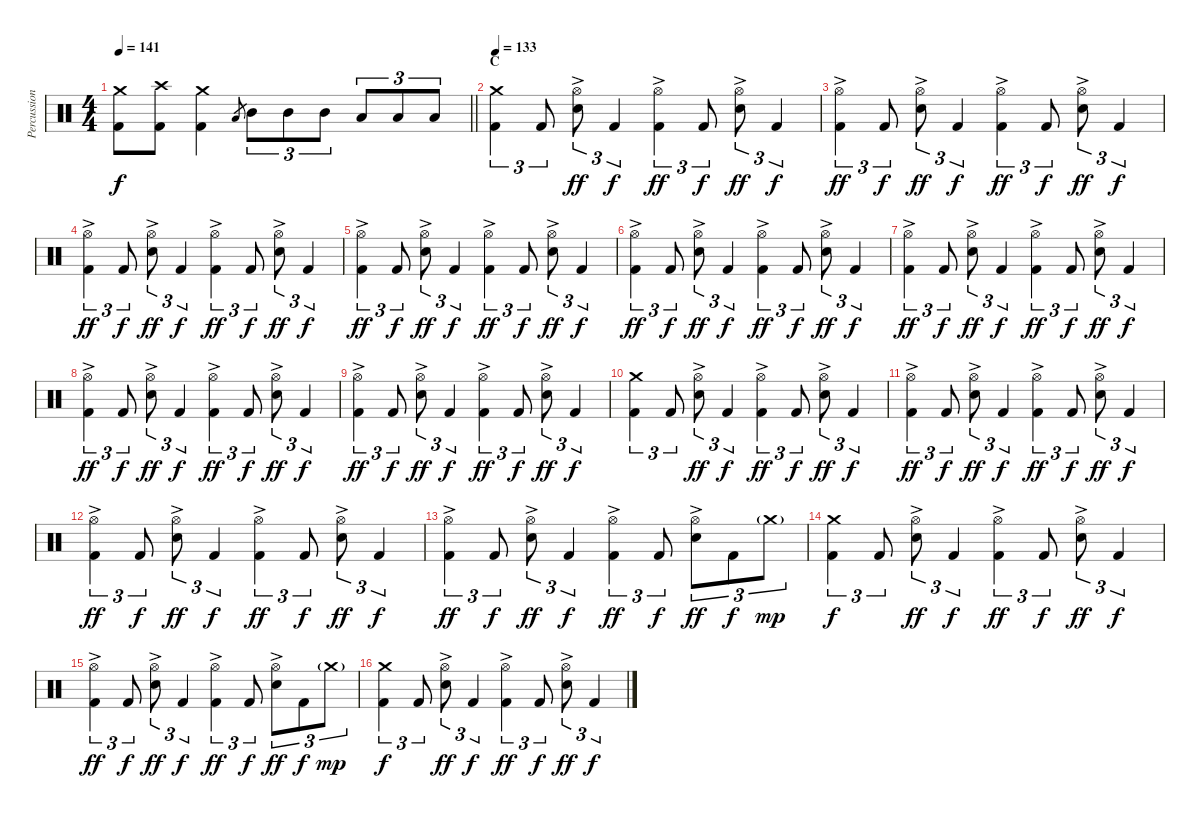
\track ("Percussion" "Percussion") {instrument percussion}
\staff {score}
\articulation defaults
\ts (4 4)
\tempo 141
\clef neutral
\barLineRight lightlight
\ks c
("Crash medium (hit)" "Kick (hit) 2").8{dy f} ("Crash high (hit)" "Kick (hit) 2").8 ("Crash medium (hit)" "Kick (hit) 2").4 "Low Tom (hit)".8{gr} "Mid Tom (hit)".8{tu (3 2)} "Mid Tom (hit)".8{tu (3 2)} "Mid Tom (hit)".8{tu (3 2)} "Low Tom (hit)".8{tu (3 2)} "Low Tom (hit)".8{tu (3 2)} "Low Tom (hit)".8{tu (3 2)} |
\section ("" "C")
\tempo 133
("Crash medium (hit)" "Kick (hit) 2").4{tu (3 2)} "Kick (hit) 2".8{tu (3 2)} ("Hi-Hat (open)"{ac} "Snare (hit) 2").8{tu (3 2) dy ff} "Kick (hit) 2".4{tu (3 2) dy f} ("Hi-Hat (open)"{ac} "Kick (hit) 2").4{tu (3 2) dy ff} "Kick (hit) 2".8{tu (3 2) dy f} ("Hi-Hat (open)"{ac} "Snare (hit) 2").8{tu (3 2) dy ff} "Kick (hit) 2".4{tu (3 2) dy f} |
("Hi-Hat (open)"{ac} "Kick (hit) 2").4{tu (3 2) dy ff} "Kick (hit) 2".8{tu (3 2) dy f} ("Hi-Hat (open)"{ac} "Snare (hit) 2").8{tu (3 2) dy ff} "Kick (hit) 2".4{tu (3 2) dy f} ("Hi-Hat (open)"{ac} "Kick (hit) 2").4{tu (3 2) dy ff} "Kick (hit) 2".8{tu (3 2) dy f} ("Hi-Hat (open)"{ac} "Snare (hit) 2").8{tu (3 2) dy ff} "Kick (hit) 2".4{tu (3 2) dy f} |
("Hi-Hat (open)"{ac} "Kick (hit) 2").4{tu (3 2) dy ff} "Kick (hit) 2".8{tu (3 2) dy f} ("Hi-Hat (open)"{ac} "Snare (hit) 2").8{tu (3 2) dy ff} "Kick (hit) 2".4{tu (3 2) dy f} ("Hi-Hat (open)"{ac} "Kick (hit) 2").4{tu (3 2) dy ff} "Kick (hit) 2".8{tu (3 2) dy f} ("Hi-Hat (open)"{ac} "Snare (hit) 2").8{tu (3 2) dy ff} "Kick (hit) 2".4{tu (3 2) dy f} |
("Hi-Hat (open)"{ac} "Kick (hit) 2").4{tu (3 2) dy ff} "Kick (hit) 2".8{tu (3 2) dy f} ("Hi-Hat (open)"{ac} "Snare (hit) 2").8{tu (3 2) dy ff} "Kick (hit) 2".4{tu (3 2) dy f} ("Hi-Hat (open)"{ac} "Kick (hit) 2").4{tu (3 2) dy ff} "Kick (hit) 2".8{tu (3 2) dy f} ("Hi-Hat (open)"{ac} "Snare (hit) 2").8{tu (3 2) dy ff} "Kick (hit) 2".4{tu (3 2) dy f} |
("Hi-Hat (open)"{ac} "Kick (hit) 2").4{tu (3 2) dy ff} "Kick (hit) 2".8{tu (3 2) dy f} ("Hi-Hat (open)"{ac} "Snare (hit) 2").8{tu (3 2) dy ff} "Kick (hit) 2".4{tu (3 2) dy f} ("Hi-Hat (open)"{ac} "Kick (hit) 2").4{tu (3 2) dy ff} "Kick (hit) 2".8{tu (3 2) dy f} ("Hi-Hat (open)"{ac} "Snare (hit) 2").8{tu (3 2) dy ff} "Kick (hit) 2".4{tu (3 2) dy f} |
("Hi-Hat (open)"{ac} "Kick (hit) 2").4{tu (3 2) dy ff} "Kick (hit) 2".8{tu (3 2) dy f} ("Hi-Hat (open)"{ac} "Snare (hit) 2").8{tu (3 2) dy ff} "Kick (hit) 2".4{tu (3 2) dy f} ("Hi-Hat (open)"{ac} "Kick (hit) 2").4{tu (3 2) dy ff} "Kick (hit) 2".8{tu (3 2) dy f} ("Hi-Hat (open)"{ac} "Snare (hit) 2").8{tu (3 2) dy ff} "Kick (hit) 2".4{tu (3 2) dy f} |
("Hi-Hat (open)"{ac} "Kick (hit) 2").4{tu (3 2) dy ff} "Kick (hit) 2".8{tu (3 2) dy f} ("Hi-Hat (open)"{ac} "Snare (hit) 2").8{tu (3 2) dy ff} "Kick (hit) 2".4{tu (3 2) dy f} ("Hi-Hat (open)"{ac} "Kick (hit) 2").4{tu (3 2) dy ff} "Kick (hit) 2".8{tu (3 2) dy f} ("Hi-Hat (open)"{ac} "Snare (hit) 2").8{tu (3 2) dy ff} "Kick (hit) 2".4{tu (3 2) dy f} |
("Hi-Hat (open)"{ac} "Kick (hit) 2").4{tu (3 2) dy ff} "Kick (hit) 2".8{tu (3 2) dy f} ("Hi-Hat (open)"{ac} "Snare (hit) 2").8{tu (3 2) dy ff} "Kick (hit) 2".4{tu (3 2) dy f} ("Hi-Hat (open)"{ac} "Kick (hit) 2").4{tu (3 2) dy ff} "Kick (hit) 2".8{tu (3 2) dy f} ("Hi-Hat (open)"{ac} "Snare (hit) 2").8{tu (3 2) dy ff} "Kick (hit) 2".4{tu (3 2) dy f} |
("Crash medium (hit)" "Kick (hit) 2").4{tu (3 2)} "Kick (hit) 2".8{tu (3 2)} ("Hi-Hat (open)"{ac} "Snare (hit) 2").8{tu (3 2) dy ff} "Kick (hit) 2".4{tu (3 2) dy f} ("Hi-Hat (open)"{ac} "Kick (hit) 2").4{tu (3 2) dy ff} "Kick (hit) 2".8{tu (3 2) dy f} ("Hi-Hat (open)"{ac} "Snare (hit) 2").8{tu (3 2) dy ff} "Kick (hit) 2".4{tu (3 2) dy f} |
("Hi-Hat (open)"{ac} "Kick (hit) 2").4{tu (3 2) dy ff} "Kick (hit) 2".8{tu (3 2) dy f} ("Hi-Hat (open)"{ac} "Snare (hit) 2").8{tu (3 2) dy ff} "Kick (hit) 2".4{tu (3 2) dy f} ("Hi-Hat (open)"{ac} "Kick (hit) 2").4{tu (3 2) dy ff} "Kick (hit) 2".8{tu (3 2) dy f} ("Hi-Hat (open)"{ac} "Snare (hit) 2").8{tu (3 2) dy ff} "Kick (hit) 2".4{tu (3 2) dy f} |
("Hi-Hat (open)"{ac} "Kick (hit) 2").4{tu (3 2) dy ff} "Kick (hit) 2".8{tu (3 2) dy f} ("Hi-Hat (open)"{ac} "Snare (hit) 2").8{tu (3 2) dy ff} "Kick (hit) 2".4{tu (3 2) dy f} ("Hi-Hat (open)"{ac} "Kick (hit) 2").4{tu (3 2) dy ff} "Kick (hit) 2".8{tu (3 2) dy f} ("Hi-Hat (open)"{ac} "Snare (hit) 2").8{tu (3 2) dy ff} "Kick (hit) 2".4{tu (3 2) dy f} |
("Hi-Hat (open)"{ac} "Kick (hit) 2").4{tu (3 2) dy ff} "Kick (hit) 2".8{tu (3 2) dy f} ("Hi-Hat (open)"{ac} "Snare (hit) 2").8{tu (3 2) dy ff} "Kick (hit) 2".4{tu (3 2) dy f} ("Hi-Hat (open)"{ac} "Kick (hit) 2").4{tu (3 2) dy ff} "Kick (hit) 2".8{tu (3 2) dy f} ("Hi-Hat (open)"{ac} "Snare (hit) 2").8{tu (3 2) dy ff} "Kick (hit) 2".8{tu (3 2) dy f} "Crash medium (hit)"{g}.8{tu (3 2) dy mp} |
("Crash medium (hit)" "Kick (hit) 2").4{tu (3 2) dy f} "Kick (hit) 2".8{tu (3 2)} ("Hi-Hat (open)"{ac} "Snare (hit) 2").8{tu (3 2) dy ff} "Kick (hit) 2".4{tu (3 2) dy f} ("Hi-Hat (open)"{ac} "Kick (hit) 2").4{tu (3 2) dy ff} "Kick (hit) 2".8{tu (3 2) dy f} ("Hi-Hat (open)"{ac} "Snare (hit) 2").8{tu (3 2) dy ff} "Kick (hit) 2".4{tu (3 2) dy f} |
("Hi-Hat (open)"{ac} "Kick (hit) 2").4{tu (3 2) dy ff} "Kick (hit) 2".8{tu (3 2) dy f} ("Hi-Hat (open)"{ac} "Snare (hit) 2").8{tu (3 2) dy ff} "Kick (hit) 2".4{tu (3 2) dy f} ("Hi-Hat (open)"{ac} "Kick (hit) 2").4{tu (3 2) dy ff} "Kick (hit) 2".8{tu (3 2) dy f} ("Hi-Hat (open)"{ac} "Snare (hit) 2").8{tu (3 2) dy ff} "Kick (hit) 2".8{tu (3 2) dy f} "Crash medium (hit)"{g}.8{tu (3 2) dy mp} |
("Crash medium (hit)" "Kick (hit) 2").4{tu (3 2) dy f} "Kick (hit) 2".8{tu (3 2)} ("Hi-Hat (open)"{ac} "Snare (hit) 2").8{tu (3 2) dy ff} "Kick (hit) 2".4{tu (3 2) dy f} ("Hi-Hat (open)"{ac} "Kick (hit) 2").4{tu (3 2) dy ff} "Kick (hit) 2".8{tu (3 2) dy f} ("Hi-Hat (open)"{ac} "Snare (hit) 2").8{tu (3 2) dy ff} "Kick (hit) 2".4{tu (3 2) dy f}
